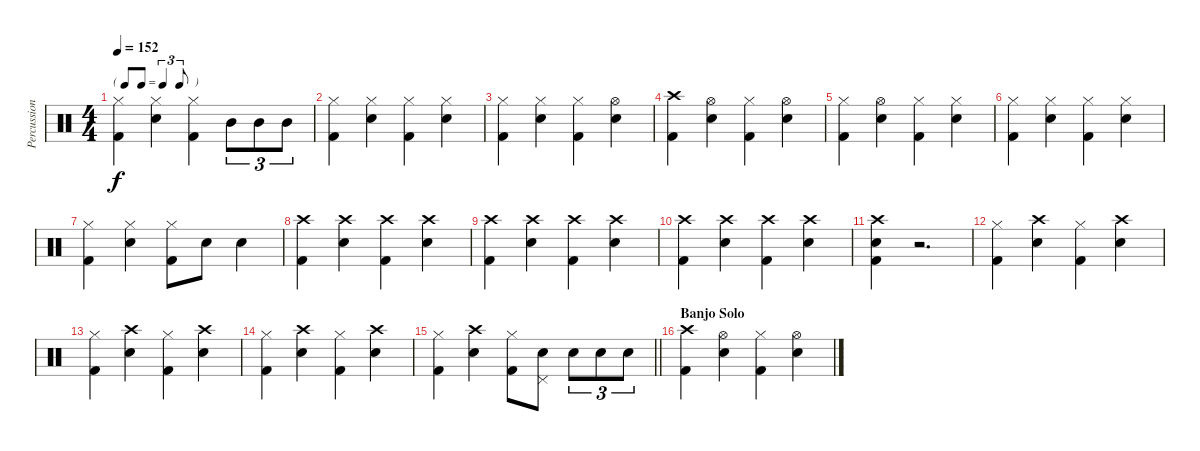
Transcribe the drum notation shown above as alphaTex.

\track ("Percussion" "Percussion") {instrument percussion}
\staff {score}
\articulation defaults
\ts (4 4)
\tf triplet8th
\tempo 152
\clef neutral
\ks c
("Hi-Hat (closed)" "Kick (hit) 2").4{dy f} ("Hi-Hat (closed)" "Snare (hit) 2").4 ("Hi-Hat (closed)" "Kick (hit) 2").4 "Mid Tom (hit)".8{tu (3 2)} "Mid Tom (hit)".8{tu (3 2)} "Mid Tom (hit)".8{tu (3 2)} |
("Hi-Hat (closed)" "Kick (hit) 2").4 ("Hi-Hat (closed)" "Snare (hit) 2").4 ("Hi-Hat (closed)" "Kick (hit) 2").4 ("Hi-Hat (closed)" "Snare (hit) 2").4 |
("Hi-Hat (closed)" "Kick (hit) 2").4 ("Hi-Hat (closed)" "Snare (hit) 2").4 ("Hi-Hat (closed)" "Kick (hit) 2").4 ("Hi-Hat (open)" "Snare (hit) 2").4 |
("Crash high (hit)" "Kick (hit) 2").4 ("Hi-Hat (open)" "Snare (hit) 2").4 ("Hi-Hat (closed)" "Kick (hit) 2").4 ("Hi-Hat (open)" "Snare (hit) 2").4 |
("Hi-Hat (closed)" "Kick (hit) 2").4 ("Hi-Hat (open)" "Snare (hit) 2").4 ("Hi-Hat (closed)" "Kick (hit) 2").4 ("Hi-Hat (closed)" "Snare (hit) 2").4 |
("Hi-Hat (closed)" "Kick (hit) 2").4 ("Hi-Hat (closed)" "Snare (hit) 2").4 ("Hi-Hat (closed)" "Kick (hit) 2").4 ("Hi-Hat (closed)" "Snare (hit) 2").4 |
("Hi-Hat (closed)" "Kick (hit) 2").4 ("Hi-Hat (closed)" "Snare (hit) 2").4 ("Hi-Hat (closed)" "Kick (hit) 2").8 "Snare (hit) 2".8 "Snare (hit) 2".4 |
("Crash high (hit)" "Kick (hit) 2").4 ("Crash high (hit)" "Snare (hit) 2").4 ("Crash high (hit)" "Kick (hit) 2").4 ("Crash high (hit)" "Snare (hit) 2").4 |
("Crash high (hit)" "Kick (hit) 2").4 ("Crash high (hit)" "Snare (hit) 2").4 ("Crash high (hit)" "Kick (hit) 2").4 ("Crash high (hit)" "Snare (hit) 2").4 |
("Crash high (hit)" "Kick (hit) 2").4 ("Crash high (hit)" "Snare (hit) 2").4 ("Crash high (hit)" "Kick (hit) 2").4 ("Crash high (hit)" "Snare (hit) 2").4 |
("Crash high (hit)" "Snare (hit) 2" "Kick (hit) 2").4 r.2{d} |
("Hi-Hat (closed)" "Kick (hit) 2").4 ("Crash high (hit)" "Snare (hit) 2").4 ("Hi-Hat (closed)" "Kick (hit) 2").4 ("Crash high (hit)" "Snare (hit) 2").4 |
("Hi-Hat (closed)" "Kick (hit) 2").4 ("Crash high (hit)" "Snare (hit) 2").4 ("Hi-Hat (closed)" "Kick (hit) 2").4 ("Crash high (hit)" "Snare (hit) 2").4 |
("Hi-Hat (closed)" "Kick (hit) 2").4 ("Crash high (hit)" "Snare (hit) 2").4 ("Hi-Hat (closed)" "Kick (hit) 2").4 ("Crash high (hit)" "Snare (hit) 2").4 |
\barLineRight lightlight
("Hi-Hat (closed)" "Kick (hit) 2").4 ("Crash high (hit)" "Snare (hit) 2").4 ("Hi-Hat (closed)" "Kick (hit) 2").8 ("Snare (hit) 2" "Pedal Hi-Hat (hit)").8 "Snare (hit) 2".8{tu (3 2)} "Snare (hit) 2".8{tu (3 2)} "Snare (hit) 2".8{tu (3 2)} |
\section ("" "Banjo Solo")
("Crash high (hit)" "Kick (hit) 2").4 ("Hi-Hat (open)" "Snare (hit) 2").4 ("Hi-Hat (closed)" "Kick (hit) 2").4 ("Hi-Hat (open)" "Snare (hit) 2").4
